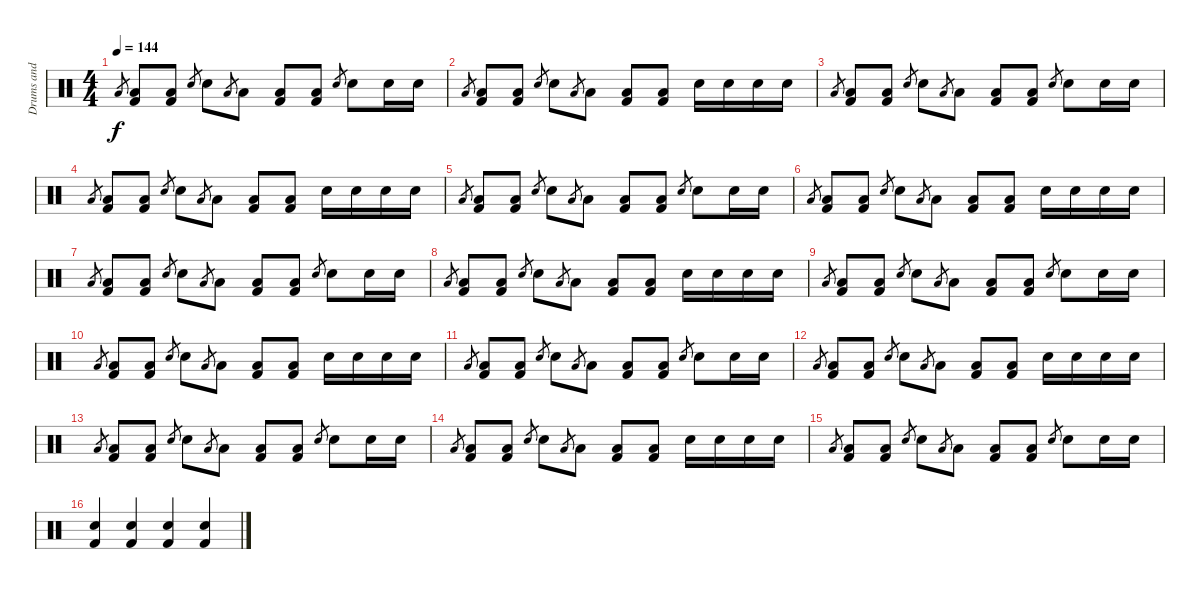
\track ("Drums and Percussion" "Drums and ") {instrument percussion}
\staff {score}
\articulation defaults
\ts (4 4)
\tempo 144
\clef neutral
\ks c "Low Floor Tom (hit)".8{gr dy f}
("Low Floor Tom (hit)" "Kick (hit) 2").8 ("Low Floor Tom (hit)" "Kick (hit) 2").8 "Electric Snare (hit)".8{gr} "Electric Snare (hit)".8 "Low Floor Tom (hit)".8{gr} "Low Floor Tom (hit)".8 ("Low Floor Tom (hit)" "Kick (hit) 2").8 ("Low Floor Tom (hit)" "Kick (hit) 2").8 "Electric Snare (hit)".8{gr} "Electric Snare (hit)".8 "Electric Snare (hit)".16 "Electric Snare (hit)".16 |
"Low Floor Tom (hit)".8{gr} ("Low Floor Tom (hit)" "Kick (hit) 2").8 ("Low Floor Tom (hit)" "Kick (hit) 2").8 "Electric Snare (hit)".8{gr} "Electric Snare (hit)".8 "Low Floor Tom (hit)".8{gr} "Low Floor Tom (hit)".8 ("Low Floor Tom (hit)" "Kick (hit) 2").8 ("Low Floor Tom (hit)" "Kick (hit) 2").8 "Electric Snare (hit)".16 "Electric Snare (hit)".16 "Electric Snare (hit)".16 "Electric Snare (hit)".16 |
"Low Floor Tom (hit)".8{gr} ("Low Floor Tom (hit)" "Kick (hit) 2").8 ("Low Floor Tom (hit)" "Kick (hit) 2").8 "Electric Snare (hit)".8{gr} "Electric Snare (hit)".8 "Low Floor Tom (hit)".8{gr} "Low Floor Tom (hit)".8 ("Low Floor Tom (hit)" "Kick (hit) 2").8 ("Low Floor Tom (hit)" "Kick (hit) 2").8 "Electric Snare (hit)".8{gr} "Electric Snare (hit)".8 "Electric Snare (hit)".16 "Electric Snare (hit)".16 |
"Low Floor Tom (hit)".8{gr} ("Low Floor Tom (hit)" "Kick (hit) 2").8 ("Low Floor Tom (hit)" "Kick (hit) 2").8 "Electric Snare (hit)".8{gr} "Electric Snare (hit)".8 "Low Floor Tom (hit)".8{gr} "Low Floor Tom (hit)".8 ("Low Floor Tom (hit)" "Kick (hit) 2").8 ("Low Floor Tom (hit)" "Kick (hit) 2").8 "Electric Snare (hit)".16 "Electric Snare (hit)".16 "Electric Snare (hit)".16 "Electric Snare (hit)".16 |
"Low Floor Tom (hit)".8{gr} ("Low Floor Tom (hit)" "Kick (hit) 2").8 ("Low Floor Tom (hit)" "Kick (hit) 2").8 "Electric Snare (hit)".8{gr} "Electric Snare (hit)".8 "Low Floor Tom (hit)".8{gr} "Low Floor Tom (hit)".8 ("Low Floor Tom (hit)" "Kick (hit) 2").8 ("Low Floor Tom (hit)" "Kick (hit) 2").8 "Electric Snare (hit)".8{gr} "Electric Snare (hit)".8 "Electric Snare (hit)".16 "Electric Snare (hit)".16 |
"Low Floor Tom (hit)".8{gr} ("Low Floor Tom (hit)" "Kick (hit) 2").8 ("Low Floor Tom (hit)" "Kick (hit) 2").8 "Electric Snare (hit)".8{gr} "Electric Snare (hit)".8 "Low Floor Tom (hit)".8{gr} "Low Floor Tom (hit)".8 ("Low Floor Tom (hit)" "Kick (hit) 2").8 ("Low Floor Tom (hit)" "Kick (hit) 2").8 "Electric Snare (hit)".16 "Electric Snare (hit)".16 "Electric Snare (hit)".16 "Electric Snare (hit)".16 |
"Low Floor Tom (hit)".8{gr} ("Low Floor Tom (hit)" "Kick (hit) 2").8 ("Low Floor Tom (hit)" "Kick (hit) 2").8 "Electric Snare (hit)".8{gr} "Electric Snare (hit)".8 "Low Floor Tom (hit)".8{gr} "Low Floor Tom (hit)".8 ("Low Floor Tom (hit)" "Kick (hit) 2").8 ("Low Floor Tom (hit)" "Kick (hit) 2").8 "Electric Snare (hit)".8{gr} "Electric Snare (hit)".8 "Electric Snare (hit)".16 "Electric Snare (hit)".16 |
"Low Floor Tom (hit)".8{gr} ("Low Floor Tom (hit)" "Kick (hit) 2").8 ("Low Floor Tom (hit)" "Kick (hit) 2").8 "Electric Snare (hit)".8{gr} "Electric Snare (hit)".8 "Low Floor Tom (hit)".8{gr} "Low Floor Tom (hit)".8 ("Low Floor Tom (hit)" "Kick (hit) 2").8 ("Low Floor Tom (hit)" "Kick (hit) 2").8 "Electric Snare (hit)".16 "Electric Snare (hit)".16 "Electric Snare (hit)".16 "Electric Snare (hit)".16 |
"Low Floor Tom (hit)".8{gr} ("Low Floor Tom (hit)" "Kick (hit) 2").8 ("Low Floor Tom (hit)" "Kick (hit) 2").8 "Electric Snare (hit)".8{gr} "Electric Snare (hit)".8 "Low Floor Tom (hit)".8{gr} "Low Floor Tom (hit)".8 ("Low Floor Tom (hit)" "Kick (hit) 2").8 ("Low Floor Tom (hit)" "Kick (hit) 2").8 "Electric Snare (hit)".8{gr} "Electric Snare (hit)".8 "Electric Snare (hit)".16 "Electric Snare (hit)".16 |
"Low Floor Tom (hit)".8{gr} ("Low Floor Tom (hit)" "Kick (hit) 2").8 ("Low Floor Tom (hit)" "Kick (hit) 2").8 "Electric Snare (hit)".8{gr} "Electric Snare (hit)".8 "Low Floor Tom (hit)".8{gr} "Low Floor Tom (hit)".8 ("Low Floor Tom (hit)" "Kick (hit) 2").8 ("Low Floor Tom (hit)" "Kick (hit) 2").8 "Electric Snare (hit)".16 "Electric Snare (hit)".16 "Electric Snare (hit)".16 "Electric Snare (hit)".16 |
"Low Floor Tom (hit)".8{gr} ("Low Floor Tom (hit)" "Kick (hit) 2").8 ("Low Floor Tom (hit)" "Kick (hit) 2").8 "Electric Snare (hit)".8{gr} "Electric Snare (hit)".8 "Low Floor Tom (hit)".8{gr} "Low Floor Tom (hit)".8 ("Low Floor Tom (hit)" "Kick (hit) 2").8 ("Low Floor Tom (hit)" "Kick (hit) 2").8 "Electric Snare (hit)".8{gr} "Electric Snare (hit)".8 "Electric Snare (hit)".16 "Electric Snare (hit)".16 |
"Low Floor Tom (hit)".8{gr} ("Low Floor Tom (hit)" "Kick (hit) 2").8 ("Low Floor Tom (hit)" "Kick (hit) 2").8 "Electric Snare (hit)".8{gr} "Electric Snare (hit)".8 "Low Floor Tom (hit)".8{gr} "Low Floor Tom (hit)".8 ("Low Floor Tom (hit)" "Kick (hit) 2").8 ("Low Floor Tom (hit)" "Kick (hit) 2").8 "Electric Snare (hit)".16 "Electric Snare (hit)".16 "Electric Snare (hit)".16 "Electric Snare (hit)".16 |
"Low Floor Tom (hit)".8{gr} ("Low Floor Tom (hit)" "Kick (hit) 2").8 ("Low Floor Tom (hit)" "Kick (hit) 2").8 "Electric Snare (hit)".8{gr} "Electric Snare (hit)".8 "Low Floor Tom (hit)".8{gr} "Low Floor Tom (hit)".8 ("Low Floor Tom (hit)" "Kick (hit) 2").8 ("Low Floor Tom (hit)" "Kick (hit) 2").8 "Electric Snare (hit)".8{gr} "Electric Snare (hit)".8 "Electric Snare (hit)".16 "Electric Snare (hit)".16 |
"Low Floor Tom (hit)".8{gr} ("Low Floor Tom (hit)" "Kick (hit) 2").8 ("Low Floor Tom (hit)" "Kick (hit) 2").8 "Electric Snare (hit)".8{gr} "Electric Snare (hit)".8 "Low Floor Tom (hit)".8{gr} "Low Floor Tom (hit)".8 ("Low Floor Tom (hit)" "Kick (hit) 2").8 ("Low Floor Tom (hit)" "Kick (hit) 2").8 "Electric Snare (hit)".16 "Electric Snare (hit)".16 "Electric Snare (hit)".16 "Electric Snare (hit)".16 |
"Low Floor Tom (hit)".8{gr} ("Low Floor Tom (hit)" "Kick (hit) 2").8 ("Low Floor Tom (hit)" "Kick (hit) 2").8 "Electric Snare (hit)".8{gr} "Electric Snare (hit)".8 "Low Floor Tom (hit)".8{gr} "Low Floor Tom (hit)".8 ("Low Floor Tom (hit)" "Kick (hit) 2").8 ("Low Floor Tom (hit)" "Kick (hit) 2").8 "Electric Snare (hit)".8{gr} "Electric Snare (hit)".8 "Electric Snare (hit)".16 "Electric Snare (hit)".16 |
("Electric Snare (hit)" "Kick (hit) 2").4 ("Electric Snare (hit)" "Kick (hit) 2").4 ("Electric Snare (hit)" "Kick (hit) 2").4 ("Electric Snare (hit)" "Kick (hit) 2").4
